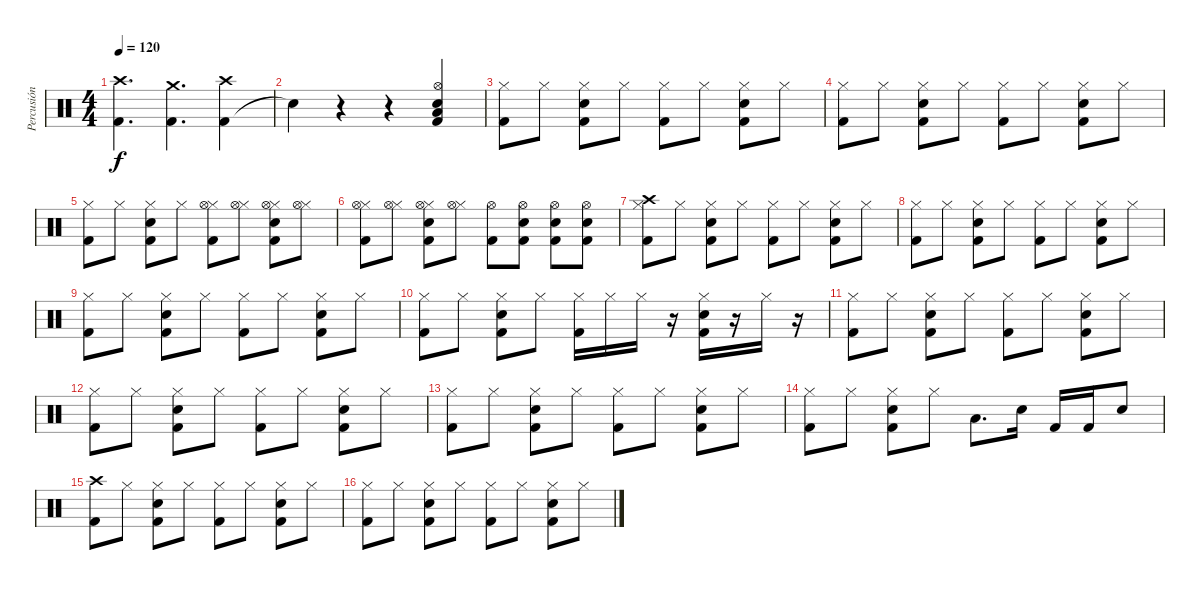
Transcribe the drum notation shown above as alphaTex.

\track ("Percusión" "Percusión") {instrument percussion}
\staff {score}
\articulation defaults
\ts (4 4)
\tempo 120
\clef neutral
\ks c
("Kick (hit) 2" "Crash high (hit)").4{d dy f} ("Kick (hit) 2" "Crash medium (hit)").4{d} ("Kick (hit) 2" "Crash high (hit)").4 |
"Snare (hit)"{t}.4 r.4 r.4 ("Electric Snare (hit)" "Kick (hit) 2" "Hi-Hat (open)" "Low Floor Tom (hit)").4 |
("Hi-Hat (closed)" "Kick (hit) 2").8 "Hi-Hat (closed)".8 ("Hi-Hat (closed)" "Kick (hit) 2" "Electric Snare (hit)").8 "Hi-Hat (closed)".8 ("Hi-Hat (closed)" "Kick (hit) 2").8 "Hi-Hat (closed)".8 ("Hi-Hat (closed)" "Kick (hit) 2" "Electric Snare (hit)").8 "Hi-Hat (closed)".8 |
("Hi-Hat (closed)" "Kick (hit) 2").8 "Hi-Hat (closed)".8 ("Hi-Hat (closed)" "Kick (hit) 2" "Electric Snare (hit)").8 "Hi-Hat (closed)".8 ("Hi-Hat (closed)" "Kick (hit) 2").8 "Hi-Hat (closed)".8 ("Hi-Hat (closed)" "Kick (hit) 2" "Electric Snare (hit)").8 "Hi-Hat (closed)".8 |
("Hi-Hat (closed)" "Kick (hit) 2").8 "Hi-Hat (closed)".8 ("Hi-Hat (closed)" "Kick (hit) 2" "Electric Snare (hit)").8 "Hi-Hat (closed)".8 ("Hi-Hat (closed)" "Kick (hit) 2" "Hi-Hat (open)").8 ("Hi-Hat (closed)" "Hi-Hat (open)").8 ("Hi-Hat (closed)" "Kick (hit) 2" "Electric Snare (hit)" "Hi-Hat (open)").8 ("Hi-Hat (closed)" "Hi-Hat (open)").8 |
("Hi-Hat (closed)" "Kick (hit) 2" "Hi-Hat (open)").8 ("Hi-Hat (closed)" "Hi-Hat (open)").8 ("Hi-Hat (closed)" "Kick (hit) 2" "Electric Snare (hit)" "Hi-Hat (open)").8 ("Hi-Hat (closed)" "Hi-Hat (open)").8 ("Kick (hit) 2" "Hi-Hat (open)").8 ("Kick (hit) 2" "Electric Snare (hit)" "Hi-Hat (open)").8 ("Kick (hit) 2" "Electric Snare (hit)" "Hi-Hat (open)").8 ("Kick (hit) 2" "Electric Snare (hit)" "Hi-Hat (open)").8 |
("Hi-Hat (closed)" "Kick (hit) 2" "Crash high (hit)").8 "Hi-Hat (closed)".8 ("Hi-Hat (closed)" "Kick (hit) 2" "Electric Snare (hit)").8 "Hi-Hat (closed)".8 ("Hi-Hat (closed)" "Kick (hit) 2").8 "Hi-Hat (closed)".8 ("Hi-Hat (closed)" "Kick (hit) 2" "Electric Snare (hit)").8 "Hi-Hat (closed)".8 |
("Hi-Hat (closed)" "Kick (hit) 2").8 "Hi-Hat (closed)".8 ("Hi-Hat (closed)" "Kick (hit) 2" "Electric Snare (hit)").8 "Hi-Hat (closed)".8 ("Hi-Hat (closed)" "Kick (hit) 2").8 "Hi-Hat (closed)".8 ("Hi-Hat (closed)" "Kick (hit) 2" "Electric Snare (hit)").8 "Hi-Hat (closed)".8 |
("Hi-Hat (closed)" "Kick (hit) 2").8 "Hi-Hat (closed)".8 ("Hi-Hat (closed)" "Kick (hit) 2" "Electric Snare (hit)").8 "Hi-Hat (closed)".8 ("Hi-Hat (closed)" "Kick (hit) 2").8 "Hi-Hat (closed)".8 ("Hi-Hat (closed)" "Kick (hit) 2" "Electric Snare (hit)").8 "Hi-Hat (closed)".8 |
("Hi-Hat (closed)" "Kick (hit) 2").8 "Hi-Hat (closed)".8 ("Hi-Hat (closed)" "Kick (hit) 2" "Electric Snare (hit)").8 "Hi-Hat (closed)".8 ("Hi-Hat (closed)" "Kick (hit) 2").16 "Hi-Hat (closed)".16 "Hi-Hat (closed)".16 r.16 ("Hi-Hat (closed)" "Kick (hit) 2" "Electric Snare (hit)").16 r.16 "Hi-Hat (closed)".16 r.16 |
("Hi-Hat (closed)" "Kick (hit) 2").8 "Hi-Hat (closed)".8 ("Hi-Hat (closed)" "Kick (hit) 2" "Electric Snare (hit)").8 "Hi-Hat (closed)".8 ("Hi-Hat (closed)" "Kick (hit) 2").8 "Hi-Hat (closed)".8 ("Hi-Hat (closed)" "Kick (hit) 2" "Electric Snare (hit)").8 "Hi-Hat (closed)".8 |
("Hi-Hat (closed)" "Kick (hit) 2").8 "Hi-Hat (closed)".8 ("Hi-Hat (closed)" "Kick (hit) 2" "Electric Snare (hit)").8 "Hi-Hat (closed)".8 ("Hi-Hat (closed)" "Kick (hit) 2").8 "Hi-Hat (closed)".8 ("Hi-Hat (closed)" "Kick (hit) 2" "Electric Snare (hit)").8 "Hi-Hat (closed)".8 |
("Hi-Hat (closed)" "Kick (hit) 2").8 "Hi-Hat (closed)".8 ("Hi-Hat (closed)" "Kick (hit) 2" "Electric Snare (hit)").8 "Hi-Hat (closed)".8 ("Hi-Hat (closed)" "Kick (hit) 2").8 "Hi-Hat (closed)".8 ("Hi-Hat (closed)" "Kick (hit) 2" "Electric Snare (hit)").8 "Hi-Hat (closed)".8 |
("Hi-Hat (closed)" "Kick (hit) 2").8 "Hi-Hat (closed)".8 ("Hi-Hat (closed)" "Kick (hit) 2" "Electric Snare (hit)").8 "Hi-Hat (closed)".8 "Low Floor Tom (hit)".8{d} "Electric Snare (hit)".16 "Kick (hit) 2".16 "Kick (hit) 2".16 "Electric Snare (hit)".8 |
("Crash high (hit)" "Kick (hit) 2").8 "Hi-Hat (closed)".8 ("Hi-Hat (closed)" "Kick (hit) 2" "Electric Snare (hit)").8 "Hi-Hat (closed)".8 ("Hi-Hat (closed)" "Kick (hit) 2").8 "Hi-Hat (closed)".8 ("Hi-Hat (closed)" "Kick (hit) 2" "Electric Snare (hit)").8 "Hi-Hat (closed)".8 |
("Hi-Hat (closed)" "Kick (hit) 2").8 "Hi-Hat (closed)".8 ("Hi-Hat (closed)" "Kick (hit) 2" "Electric Snare (hit)").8 "Hi-Hat (closed)".8 ("Hi-Hat (closed)" "Kick (hit) 2").8 "Hi-Hat (closed)".8 ("Hi-Hat (closed)" "Kick (hit) 2" "Electric Snare (hit)").8 "Hi-Hat (closed)".8
